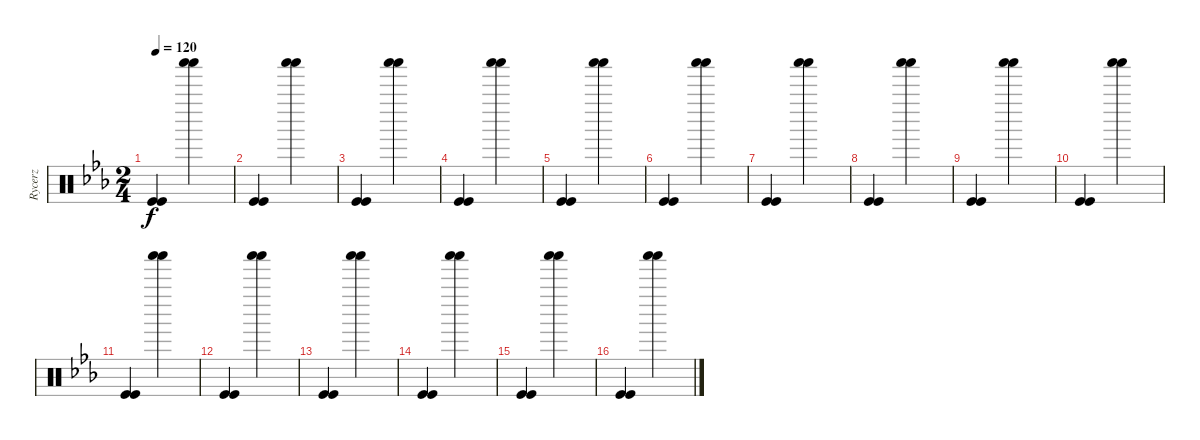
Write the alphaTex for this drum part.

\track ("Rycerz" "Rycerz") {instrument percussion}
\staff {score}
\articulation defaults
\ts (2 4)
\tempo 120
\clef neutral
\ks cminor
("Kick (hit)" "Kick (hit)").4{dy f} ("Shaker (hit)" "Shaker (hit)").4 |
("Kick (hit)" "Kick (hit)").4 ("Shaker (hit)" "Shaker (hit)").4 |
("Kick (hit)" "Kick (hit)").4 ("Shaker (hit)" "Shaker (hit)").4 |
("Kick (hit)" "Kick (hit)").4 ("Shaker (hit)" "Shaker (hit)").4 |
("Kick (hit)" "Kick (hit)").4 ("Shaker (hit)" "Shaker (hit)").4 |
("Kick (hit)" "Kick (hit)").4 ("Shaker (hit)" "Shaker (hit)").4 |
("Kick (hit)" "Kick (hit)").4 ("Shaker (hit)" "Shaker (hit)").4 |
("Kick (hit)" "Kick (hit)").4 ("Shaker (hit)" "Shaker (hit)").4 |
("Kick (hit)" "Kick (hit)").4 ("Shaker (hit)" "Shaker (hit)").4 |
("Kick (hit)" "Kick (hit)").4 ("Shaker (hit)" "Shaker (hit)").4 |
("Kick (hit)" "Kick (hit)").4 ("Shaker (hit)" "Shaker (hit)").4 |
("Kick (hit)" "Kick (hit)").4 ("Shaker (hit)" "Shaker (hit)").4 |
("Kick (hit)" "Kick (hit)").4 ("Shaker (hit)" "Shaker (hit)").4 |
("Kick (hit)" "Kick (hit)").4 ("Shaker (hit)" "Shaker (hit)").4 |
("Kick (hit)" "Kick (hit)").4 ("Shaker (hit)" "Shaker (hit)").4 |
("Kick (hit)" "Kick (hit)").4 ("Shaker (hit)" "Shaker (hit)").4
